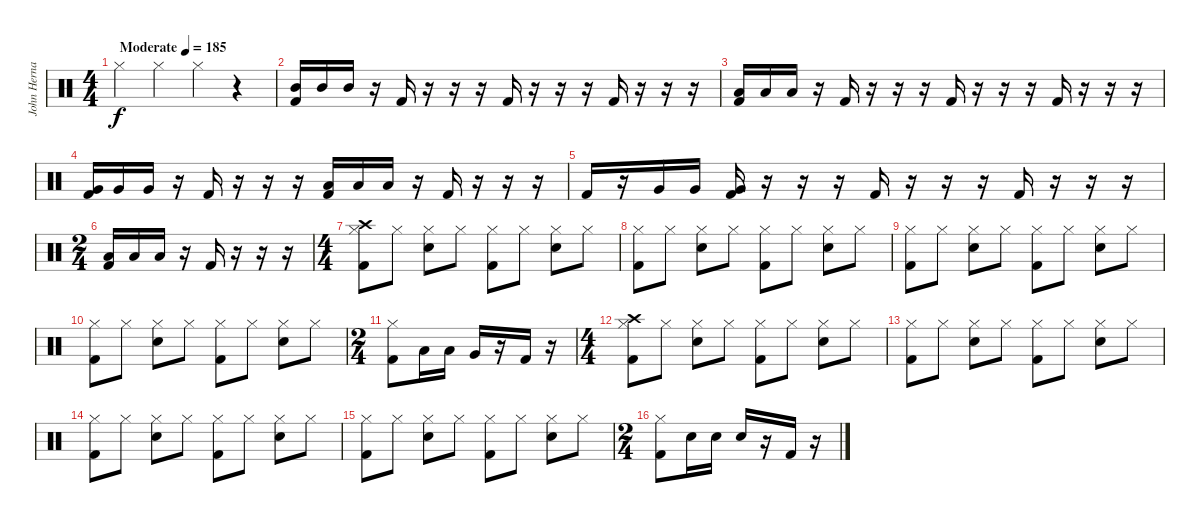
\track ("John Hernandez" "John Herna") {instrument percussion}
\staff {score}
\articulation defaults
\ts (4 4)
\tempo (185 "Moderate")
\clef neutral
\ks c "Hi-Hat (closed)".4{dy f} "Hi-Hat (closed)".4 "Hi-Hat (closed)".4
r.4 |
("Mid Tom (hit)" "Kick (hit) 2").16 "Mid Tom (hit)".16 "Mid Tom (hit)".16 r.16 "Kick (hit) 2".16 r.16 r.16 r.16 "Kick (hit) 2".16 r.16 r.16 r.16 "Kick (hit) 2".16 r.16 r.16 r.16 |
("Low Tom (hit)" "Kick (hit) 2").16 "Low Tom (hit)".16 "Low Tom (hit)".16 r.16 "Kick (hit) 2".16 r.16 r.16 r.16 "Kick (hit) 2".16 r.16 r.16 r.16 "Kick (hit) 2".16 r.16 r.16 r.16 |
("Very Low Tom (hit)" "Kick (hit) 2").16 "Very Low Tom (hit)".16 "Very Low Tom (hit)".16 r.16 "Kick (hit) 2".16 r.16 r.16 r.16 ("Low Floor Tom (hit)" "Kick (hit) 2").16 "Low Floor Tom (hit)".16 "Low Floor Tom (hit)".16 r.16 "Kick (hit) 2".16 r.16 r.16 r.16 |
"Kick (hit) 2".16 r.16 "Very Low Tom (hit)".16 "Very Low Tom (hit)".16 ("Very Low Tom (hit)" "Kick (hit) 2").16 r.16 r.16 r.16 "Kick (hit) 2".16 r.16 r.16 r.16 "Kick (hit) 2".16 r.16 r.16 r.16 |
\ts (2 4)
("Low Tom (hit)" "Kick (hit) 2").16 "Low Tom (hit)".16 "Low Tom (hit)".16 r.16 "Kick (hit) 2".16 r.16 r.16 r.16 |
\ts (4 4)
("Crash high (hit)" "Hi-Hat (closed)" "Kick (hit) 2").8 "Hi-Hat (closed)".8 ("Hi-Hat (closed)" "Snare (hit) 2").8 "Hi-Hat (closed)".8 ("Hi-Hat (closed)" "Kick (hit) 2").8 "Hi-Hat (closed)".8 ("Hi-Hat (closed)" "Snare (hit) 2").8 "Hi-Hat (closed)".8 |
("Hi-Hat (closed)" "Kick (hit) 2").8 "Hi-Hat (closed)".8 ("Hi-Hat (closed)" "Snare (hit) 2").8 "Hi-Hat (closed)".8 ("Hi-Hat (closed)" "Kick (hit) 2").8 "Hi-Hat (closed)".8 ("Hi-Hat (closed)" "Snare (hit) 2").8 "Hi-Hat (closed)".8 |
("Hi-Hat (closed)" "Kick (hit) 2").8 "Hi-Hat (closed)".8 ("Hi-Hat (closed)" "Snare (hit) 2").8 "Hi-Hat (closed)".8 ("Hi-Hat (closed)" "Kick (hit) 2").8 "Hi-Hat (closed)".8 ("Hi-Hat (closed)" "Snare (hit) 2").8 "Hi-Hat (closed)".8 |
("Hi-Hat (closed)" "Kick (hit) 2").8 "Hi-Hat (closed)".8 ("Hi-Hat (closed)" "Snare (hit) 2").8 "Hi-Hat (closed)".8 ("Hi-Hat (closed)" "Kick (hit) 2").8 "Hi-Hat (closed)".8 ("Hi-Hat (closed)" "Snare (hit) 2").8 "Hi-Hat (closed)".8 |
\ts (2 4)
("Hi-Hat (closed)" "Kick (hit) 2").8 "Low Tom (hit)".16 "Low Tom (hit)".16 "Very Low Tom (hit)".16 r.16 "Kick (hit) 2".16 r.16 |
\ts (4 4)
("Crash high (hit)" "Hi-Hat (closed)" "Kick (hit) 2").8 "Hi-Hat (closed)".8 ("Hi-Hat (closed)" "Snare (hit) 2").8 "Hi-Hat (closed)".8 ("Hi-Hat (closed)" "Kick (hit) 2").8 "Hi-Hat (closed)".8 ("Hi-Hat (closed)" "Snare (hit) 2").8 "Hi-Hat (closed)".8 |
("Hi-Hat (closed)" "Kick (hit) 2").8 "Hi-Hat (closed)".8 ("Hi-Hat (closed)" "Snare (hit) 2").8 "Hi-Hat (closed)".8 ("Hi-Hat (closed)" "Kick (hit) 2").8 "Hi-Hat (closed)".8 ("Hi-Hat (closed)" "Snare (hit) 2").8 "Hi-Hat (closed)".8 |
("Hi-Hat (closed)" "Kick (hit) 2").8 "Hi-Hat (closed)".8 ("Hi-Hat (closed)" "Snare (hit) 2").8 "Hi-Hat (closed)".8 ("Hi-Hat (closed)" "Kick (hit) 2").8 "Hi-Hat (closed)".8 ("Hi-Hat (closed)" "Snare (hit) 2").8 "Hi-Hat (closed)".8 |
("Hi-Hat (closed)" "Kick (hit) 2").8 "Hi-Hat (closed)".8 ("Hi-Hat (closed)" "Snare (hit) 2").8 "Hi-Hat (closed)".8 ("Hi-Hat (closed)" "Kick (hit) 2").8 "Hi-Hat (closed)".8 ("Hi-Hat (closed)" "Snare (hit) 2").8 "Hi-Hat (closed)".8 |
\ts (2 4)
("Hi-Hat (closed)" "Kick (hit) 2").8 "Snare (hit) 2".16 "Snare (hit) 2".16 "Snare (hit) 2".16 r.16 "Kick (hit) 2".16 r.16
